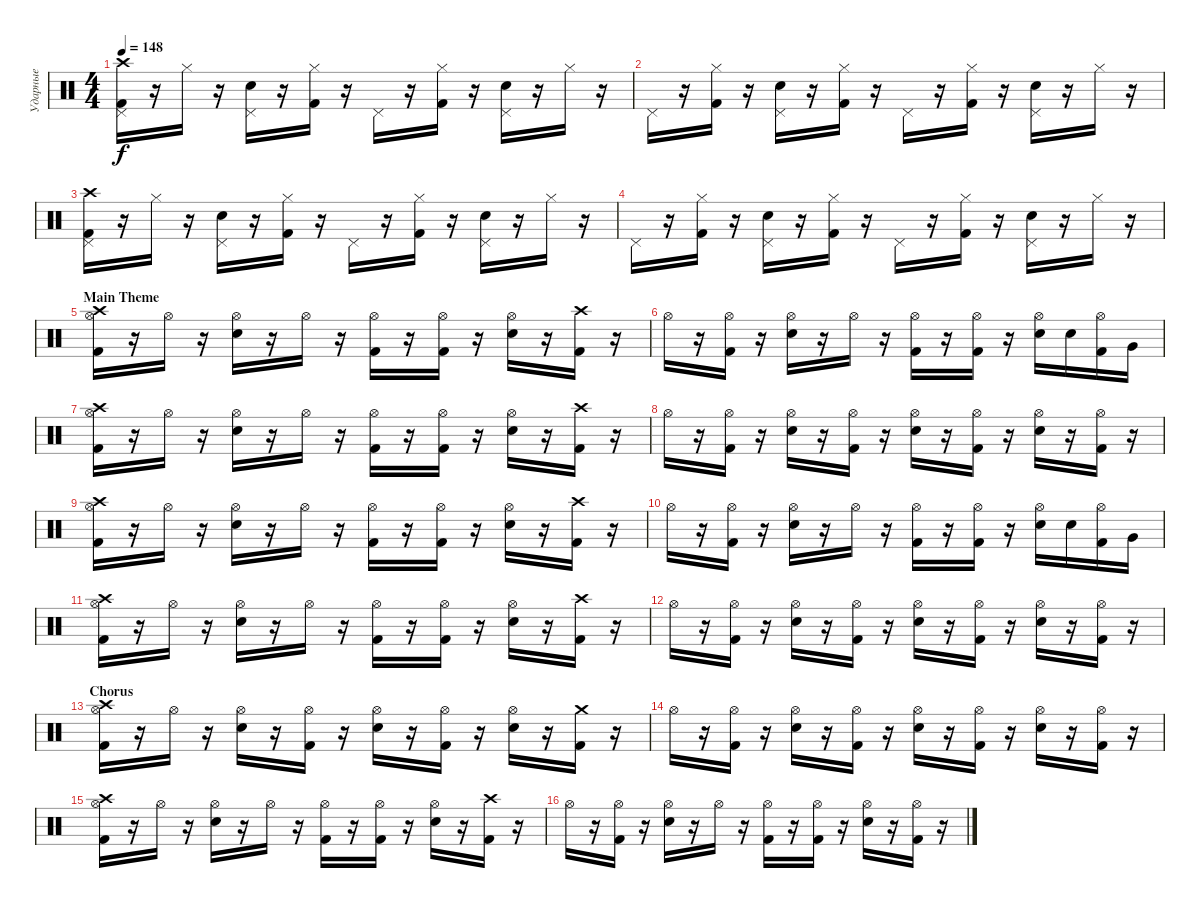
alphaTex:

\track ("Ударные" "Ударные") {instrument percussion}
\staff {score}
\articulation defaults
\ts (4 4)
\tempo 148
\clef neutral
\ks c
("Crash high (hit)" "Pedal Hi-Hat (hit)" "Kick (hit) 2").16{dy f} r.16 "Hi-Hat (closed)".16 r.16 ("Pedal Hi-Hat (hit)" "Electric Snare (hit)").16 r.16 ("Hi-Hat (closed)" "Kick (hit) 2").16 r.16 "Pedal Hi-Hat (hit)".16 r.16 ("Hi-Hat (closed)" "Kick (hit) 2").16 r.16 ("Pedal Hi-Hat (hit)" "Electric Snare (hit)").16 r.16 "Hi-Hat (closed)".16 r.16 |
"Pedal Hi-Hat (hit)".16 r.16 ("Hi-Hat (closed)" "Kick (hit) 2").16 r.16 ("Pedal Hi-Hat (hit)" "Electric Snare (hit)").16 r.16 ("Hi-Hat (closed)" "Kick (hit) 2").16 r.16 "Pedal Hi-Hat (hit)".16 r.16 ("Hi-Hat (closed)" "Kick (hit) 2").16 r.16 ("Pedal Hi-Hat (hit)" "Electric Snare (hit)").16 r.16 "Hi-Hat (closed)".16 r.16 |
("Crash high (hit)" "Pedal Hi-Hat (hit)" "Kick (hit) 2").16 r.16 "Hi-Hat (closed)".16 r.16 ("Pedal Hi-Hat (hit)" "Electric Snare (hit)").16 r.16 ("Hi-Hat (closed)" "Kick (hit) 2").16 r.16 "Pedal Hi-Hat (hit)".16 r.16 ("Hi-Hat (closed)" "Kick (hit) 2").16 r.16 ("Pedal Hi-Hat (hit)" "Electric Snare (hit)").16 r.16 "Hi-Hat (closed)".16 r.16 |
"Pedal Hi-Hat (hit)".16 r.16 ("Hi-Hat (closed)" "Kick (hit) 2").16 r.16 ("Pedal Hi-Hat (hit)" "Electric Snare (hit)").16 r.16 ("Hi-Hat (closed)" "Kick (hit) 2").16 r.16 "Pedal Hi-Hat (hit)".16 r.16 ("Hi-Hat (closed)" "Kick (hit) 2").16 r.16 ("Pedal Hi-Hat (hit)" "Electric Snare (hit)").16 r.16 "Hi-Hat (closed)".16 r.16 |
\section ("" "Main Theme")
("Crash high (hit)" "Hi-Hat (open)" "Kick (hit) 2").16 r.16 "Hi-Hat (open)".16 r.16 ("Hi-Hat (open)" "Electric Snare (hit)").16 r.16 "Hi-Hat (open)".16 r.16 ("Hi-Hat (open)" "Kick (hit) 2").16 r.16 ("Hi-Hat (open)" "Kick (hit) 2").16 r.16 ("Hi-Hat (open)" "Electric Snare (hit)").16 r.16 ("Crash high (hit)" "Kick (hit) 2").16 r.16 |
"Hi-Hat (open)".16 r.16 ("Hi-Hat (open)" "Kick (hit) 2").16 r.16 ("Hi-Hat (open)" "Electric Snare (hit)").16 r.16 "Hi-Hat (open)".16 r.16 ("Hi-Hat (open)" "Kick (hit) 2").16 r.16 ("Hi-Hat (open)" "Kick (hit) 2").16 r.16 ("Hi-Hat (open)" "Electric Snare (hit)").16 "Electric Snare (hit)".16 ("Hi-Hat (open)" "Kick (hit) 2").16 "Very Low Tom (hit)".16 |
("Crash high (hit)" "Hi-Hat (open)" "Kick (hit) 2").16 r.16 "Hi-Hat (open)".16 r.16 ("Hi-Hat (open)" "Electric Snare (hit)").16 r.16 "Hi-Hat (open)".16 r.16 ("Hi-Hat (open)" "Kick (hit) 2").16 r.16 ("Hi-Hat (open)" "Kick (hit) 2").16 r.16 ("Hi-Hat (open)" "Electric Snare (hit)").16 r.16 ("Crash high (hit)" "Kick (hit) 2").16 r.16 |
"Hi-Hat (open)".16 r.16 ("Hi-Hat (open)" "Kick (hit) 2").16 r.16 ("Hi-Hat (open)" "Electric Snare (hit)").16 r.16 ("Hi-Hat (open)" "Kick (hit) 2").16 r.16 ("Hi-Hat (open)" "Electric Snare (hit)").16 r.16 ("Hi-Hat (open)" "Kick (hit) 2").16 r.16 ("Hi-Hat (open)" "Electric Snare (hit)").16 r.16 ("Hi-Hat (open)" "Kick (hit) 2").16 r.16 |
("Crash high (hit)" "Hi-Hat (open)" "Kick (hit) 2").16 r.16 "Hi-Hat (open)".16 r.16 ("Hi-Hat (open)" "Electric Snare (hit)").16 r.16 "Hi-Hat (open)".16 r.16 ("Hi-Hat (open)" "Kick (hit) 2").16 r.16 ("Hi-Hat (open)" "Kick (hit) 2").16 r.16 ("Hi-Hat (open)" "Electric Snare (hit)").16 r.16 ("Crash high (hit)" "Kick (hit) 2").16 r.16 |
"Hi-Hat (open)".16 r.16 ("Hi-Hat (open)" "Kick (hit) 2").16 r.16 ("Hi-Hat (open)" "Electric Snare (hit)").16 r.16 "Hi-Hat (open)".16 r.16 ("Hi-Hat (open)" "Kick (hit) 2").16 r.16 ("Hi-Hat (open)" "Kick (hit) 2").16 r.16 ("Hi-Hat (open)" "Electric Snare (hit)").16 "Electric Snare (hit)".16 ("Hi-Hat (open)" "Kick (hit) 2").16 "Very Low Tom (hit)".16 |
("Crash high (hit)" "Hi-Hat (open)" "Kick (hit) 2").16 r.16 "Hi-Hat (open)".16 r.16 ("Hi-Hat (open)" "Electric Snare (hit)").16 r.16 "Hi-Hat (open)".16 r.16 ("Hi-Hat (open)" "Kick (hit) 2").16 r.16 ("Hi-Hat (open)" "Kick (hit) 2").16 r.16 ("Hi-Hat (open)" "Electric Snare (hit)").16 r.16 ("Crash high (hit)" "Kick (hit) 2").16 r.16 |
"Hi-Hat (open)".16 r.16 ("Hi-Hat (open)" "Kick (hit) 2").16 r.16 ("Hi-Hat (open)" "Electric Snare (hit)").16 r.16 ("Hi-Hat (open)" "Kick (hit) 2").16 r.16 ("Hi-Hat (open)" "Electric Snare (hit)").16 r.16 ("Hi-Hat (open)" "Kick (hit) 2").16 r.16 ("Hi-Hat (open)" "Electric Snare (hit)").16 r.16 ("Hi-Hat (open)" "Kick (hit) 2").16 r.16 |
\section ("" "Chorus")
("Crash high (hit)" "Hi-Hat (open)" "Kick (hit) 2").16 r.16 "Hi-Hat (open)".16 r.16 ("Hi-Hat (open)" "Electric Snare (hit)").16 r.16 ("Hi-Hat (open)" "Kick (hit) 2").16 r.16 ("Hi-Hat (open)" "Electric Snare (hit)").16 r.16 ("Hi-Hat (open)" "Kick (hit) 2").16 r.16 ("Hi-Hat (open)" "Electric Snare (hit)").16 r.16 ("Crash medium (hit)" "Kick (hit) 2").16 r.16 |
"Hi-Hat (open)".16 r.16 ("Hi-Hat (open)" "Kick (hit) 2").16 r.16 ("Hi-Hat (open)" "Electric Snare (hit)").16 r.16 ("Hi-Hat (open)" "Kick (hit) 2").16 r.16 ("Hi-Hat (open)" "Electric Snare (hit)").16 r.16 ("Hi-Hat (open)" "Kick (hit) 2").16 r.16 ("Hi-Hat (open)" "Electric Snare (hit)").16 r.16 ("Hi-Hat (open)" "Kick (hit) 2").16 r.16 |
("Crash high (hit)" "Hi-Hat (open)" "Kick (hit) 2").16 r.16 "Hi-Hat (open)".16 r.16 ("Hi-Hat (open)" "Electric Snare (hit)").16 r.16 "Hi-Hat (open)".16 r.16 ("Hi-Hat (open)" "Kick (hit) 2").16 r.16 ("Hi-Hat (open)" "Kick (hit) 2").16 r.16 ("Hi-Hat (open)" "Electric Snare (hit)").16 r.16 ("Crash high (hit)" "Kick (hit) 2").16 r.16 |
"Hi-Hat (open)".16 r.16 ("Hi-Hat (open)" "Kick (hit) 2").16 r.16 ("Hi-Hat (open)" "Electric Snare (hit)").16 r.16 "Hi-Hat (open)".16 r.16 ("Hi-Hat (open)" "Kick (hit) 2").16 r.16 ("Hi-Hat (open)" "Kick (hit) 2").16 r.16 ("Hi-Hat (open)" "Electric Snare (hit)").16 r.16 ("Hi-Hat (open)" "Kick (hit) 2").16 r.16
